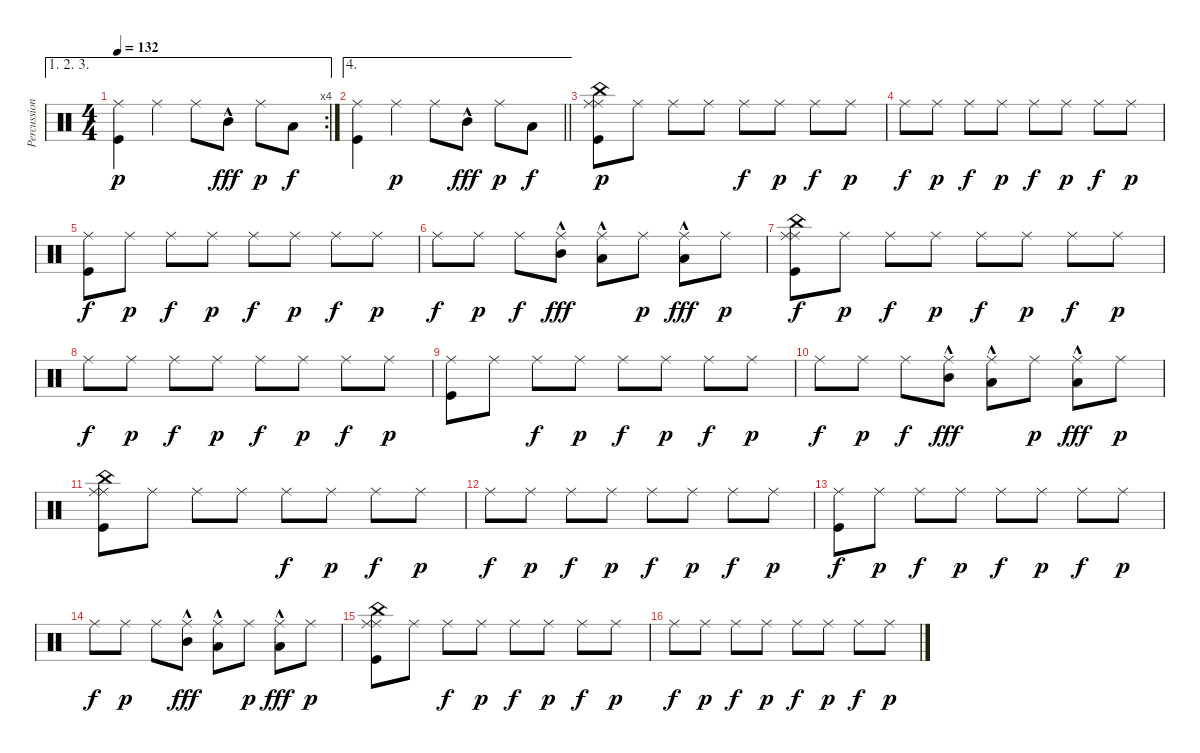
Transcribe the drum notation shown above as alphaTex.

\track ("Percussions" "Percussion") {instrument percussion}
\staff {score}
\articulation defaults
\ae (1 2 3)
\rc 4
\ts (4 4)
\tempo 132
\clef neutral
\ks c
("Ride (middle)" "Kick (hit)").4{dy p} "Ride (middle)".4 "Ride (middle)".8 "Mid Tom (hit)"{hac}.8{dy fff} "Ride (middle)".8{dy p} "Low Tom (hit)".8{dy f} |
\ae 4
\barLineRight lightlight
("Ride (middle)" "Kick (hit)").4 "Ride (middle)".4{dy p} "Ride (middle)".8 "Mid Tom (hit)"{hac}.8{dy fff} "Ride (middle)".8{dy p} "Low Tom (hit)".8{dy f} |
("Kick (hit)" "Ride (middle)" "China (hit)" "Ride (middle)").8{dy p} "Ride (middle)".8 "Ride (middle)".8 "Ride (middle)".8 "Ride (middle)".8{dy f} "Ride (middle)".8{dy p} "Ride (middle)".8{dy f} "Ride (middle)".8{dy p} |
"Ride (middle)".8{dy f} "Ride (middle)".8{dy p} "Ride (middle)".8{dy f} "Ride (middle)".8{dy p} "Ride (middle)".8{dy f} "Ride (middle)".8{dy p} "Ride (middle)".8{dy f} "Ride (middle)".8{dy p} |
("Kick (hit)" "Ride (middle)").8{dy f} "Ride (middle)".8{dy p} "Ride (middle)".8{dy f} "Ride (middle)".8{dy p} "Ride (middle)".8{dy f} "Ride (middle)".8{dy p} "Ride (middle)".8{dy f} "Ride (middle)".8{dy p} |
"Ride (middle)".8{dy f} "Ride (middle)".8{dy p} "Ride (middle)".8{dy f} ("Ride (middle)" "Mid Tom (hit)"{hac}).8{dy fff} ("Ride (middle)" "Low Tom (hit)"{hac}).8 "Ride (middle)".8{dy p} ("Ride (middle)" "Low Tom (hit)"{hac}).8{dy fff} "Ride (middle)".8{dy p} |
("Kick (hit)" "Ride (middle)" "China (hit)" "Ride (middle)").8{dy f} "Ride (middle)".8{dy p} "Ride (middle)".8{dy f} "Ride (middle)".8{dy p} "Ride (middle)".8{dy f} "Ride (middle)".8{dy p} "Ride (middle)".8{dy f} "Ride (middle)".8{dy p} |
"Ride (middle)".8{dy f} "Ride (middle)".8{dy p} "Ride (middle)".8{dy f} "Ride (middle)".8{dy p} "Ride (middle)".8{dy f} "Ride (middle)".8{dy p} "Ride (middle)".8{dy f} "Ride (middle)".8{dy p} |
("Kick (hit)" "Ride (middle)").8 "Ride (middle)".8 "Ride (middle)".8{dy f} "Ride (middle)".8{dy p} "Ride (middle)".8{dy f} "Ride (middle)".8{dy p} "Ride (middle)".8{dy f} "Ride (middle)".8{dy p} |
"Ride (middle)".8{dy f} "Ride (middle)".8{dy p} "Ride (middle)".8{dy f} ("Ride (middle)" "Mid Tom (hit)"{hac}).8{dy fff} ("Ride (middle)" "Low Tom (hit)"{hac}).8 "Ride (middle)".8{dy p} ("Ride (middle)" "Low Tom (hit)"{hac}).8{dy fff} "Ride (middle)".8{dy p} |
("Kick (hit)" "Ride (middle)" "China (hit)" "Ride (middle)").8 "Ride (middle)".8 "Ride (middle)".8 "Ride (middle)".8 "Ride (middle)".8{dy f} "Ride (middle)".8{dy p} "Ride (middle)".8{dy f} "Ride (middle)".8{dy p} |
"Ride (middle)".8{dy f} "Ride (middle)".8{dy p} "Ride (middle)".8{dy f} "Ride (middle)".8{dy p} "Ride (middle)".8{dy f} "Ride (middle)".8{dy p} "Ride (middle)".8{dy f} "Ride (middle)".8{dy p} |
("Kick (hit)" "Ride (middle)").8{dy f} "Ride (middle)".8{dy p} "Ride (middle)".8{dy f} "Ride (middle)".8{dy p} "Ride (middle)".8{dy f} "Ride (middle)".8{dy p} "Ride (middle)".8{dy f} "Ride (middle)".8{dy p} |
"Ride (middle)".8{dy f} "Ride (middle)".8{dy p} "Ride (middle)".8 ("Ride (middle)" "Mid Tom (hit)"{hac}).8{dy fff} ("Ride (middle)" "Low Tom (hit)"{hac}).8 "Ride (middle)".8{dy p} ("Ride (middle)" "Low Tom (hit)"{hac}).8{dy fff} "Ride (middle)".8{dy p} |
("Kick (hit)" "Ride (middle)" "China (hit)" "Ride (middle)").8 "Ride (middle)".8 "Ride (middle)".8{dy f} "Ride (middle)".8{dy p} "Ride (middle)".8{dy f} "Ride (middle)".8{dy p} "Ride (middle)".8{dy f} "Ride (middle)".8{dy p} |
"Ride (middle)".8{dy f} "Ride (middle)".8{dy p} "Ride (middle)".8{dy f} "Ride (middle)".8{dy p} "Ride (middle)".8{dy f} "Ride (middle)".8{dy p} "Ride (middle)".8{dy f} "Ride (middle)".8{dy p}
